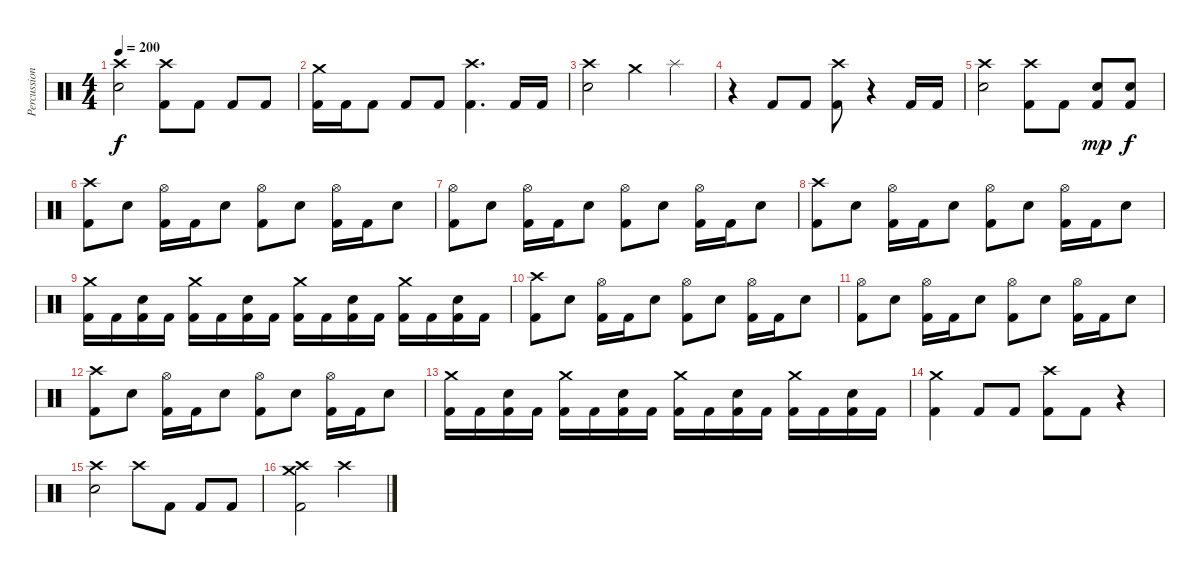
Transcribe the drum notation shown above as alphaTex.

\track ("Percussions" "Percussion") {instrument percussion}
\staff {score}
\articulation defaults
\ts (4 4)
\tempo 200
\clef neutral
\ks c
("Crash high (hit)" "Electric Snare (hit)").2{dy f} ("Crash high (hit)" "Kick (hit) 2").8 "Kick (hit) 2".8 "Kick (hit) 2".8 "Kick (hit) 2".8 |
("Crash medium (hit)" "Kick (hit) 2").16 "Kick (hit) 2".16 "Kick (hit) 2".8 "Kick (hit) 2".8 "Kick (hit) 2".8 ("Crash high (hit)" "Kick (hit) 2").4{d} "Kick (hit) 2".16 "Kick (hit) 2".16 |
("Crash high (hit)" "Electric Snare (hit)").2 "Crash medium (hit)".4 "Splash (hit)".4 |
r.4 "Kick (hit) 2".8 "Kick (hit) 2".8 ("Crash high (hit)" "Kick (hit) 2").8 r.4 "Kick (hit) 2".16 "Kick (hit) 2".16 |
("Crash high (hit)" "Electric Snare (hit)").2 ("Crash high (hit)" "Kick (hit) 2").8 "Kick (hit) 2".8 ("Electric Snare (hit)" "Kick (hit) 2").8{dy mp} ("Electric Snare (hit)" "Kick (hit) 2").8{dy f} |
("Crash high (hit)" "Kick (hit) 2").8 "Electric Snare (hit)".8 ("Hi-Hat (open)" "Kick (hit) 2").16 "Kick (hit) 2".16 "Electric Snare (hit)".8 ("Hi-Hat (open)" "Kick (hit) 2").8 "Electric Snare (hit)".8 ("Hi-Hat (open)" "Kick (hit) 2").16 "Kick (hit) 2".16 "Electric Snare (hit)".8 |
("Hi-Hat (open)" "Kick (hit) 2").8 "Electric Snare (hit)".8 ("Hi-Hat (open)" "Kick (hit) 2").16 "Kick (hit) 2".16 "Electric Snare (hit)".8 ("Hi-Hat (open)" "Kick (hit) 2").8 "Electric Snare (hit)".8 ("Hi-Hat (open)" "Kick (hit) 2").16 "Kick (hit) 2".16 "Electric Snare (hit)".8 |
("Crash high (hit)" "Kick (hit) 2").8 "Electric Snare (hit)".8 ("Hi-Hat (open)" "Kick (hit) 2").16 "Kick (hit) 2".16 "Electric Snare (hit)".8 ("Hi-Hat (open)" "Kick (hit) 2").8 "Electric Snare (hit)".8 ("Hi-Hat (open)" "Kick (hit) 2").16 "Kick (hit) 2".16 "Electric Snare (hit)".8 |
("Crash medium (hit)" "Kick (hit) 2").16 "Kick (hit) 2".16 ("Electric Snare (hit)" "Kick (hit) 2").16 "Kick (hit) 2".16 ("Crash medium (hit)" "Kick (hit) 2").16 "Kick (hit) 2".16 ("Electric Snare (hit)" "Kick (hit) 2").16 "Kick (hit) 2".16 ("Crash medium (hit)" "Kick (hit) 2").16 "Kick (hit) 2".16 ("Electric Snare (hit)" "Kick (hit) 2").16 "Kick (hit) 2".16 ("Crash medium (hit)" "Kick (hit) 2").16 "Kick (hit) 2".16 ("Electric Snare (hit)" "Kick (hit) 2").16 "Kick (hit) 2".16 |
("Crash high (hit)" "Kick (hit) 2").8 "Electric Snare (hit)".8 ("Hi-Hat (open)" "Kick (hit) 2").16 "Kick (hit) 2".16 "Electric Snare (hit)".8 ("Hi-Hat (open)" "Kick (hit) 2").8 "Electric Snare (hit)".8 ("Hi-Hat (open)" "Kick (hit) 2").16 "Kick (hit) 2".16 "Electric Snare (hit)".8 |
("Hi-Hat (open)" "Kick (hit) 2").8 "Electric Snare (hit)".8 ("Hi-Hat (open)" "Kick (hit) 2").16 "Kick (hit) 2".16 "Electric Snare (hit)".8 ("Hi-Hat (open)" "Kick (hit) 2").8 "Electric Snare (hit)".8 ("Hi-Hat (open)" "Kick (hit) 2").16 "Kick (hit) 2".16 "Electric Snare (hit)".8 |
("Crash high (hit)" "Kick (hit) 2").8 "Electric Snare (hit)".8 ("Hi-Hat (open)" "Kick (hit) 2").16 "Kick (hit) 2".16 "Electric Snare (hit)".8 ("Hi-Hat (open)" "Kick (hit) 2").8 "Electric Snare (hit)".8 ("Hi-Hat (open)" "Kick (hit) 2").16 "Kick (hit) 2".16 "Electric Snare (hit)".8 |
("Crash medium (hit)" "Kick (hit) 2").16 "Kick (hit) 2".16 ("Electric Snare (hit)" "Kick (hit) 2").16 "Kick (hit) 2".16 ("Crash medium (hit)" "Kick (hit) 2").16 "Kick (hit) 2".16 ("Electric Snare (hit)" "Kick (hit) 2").16 "Kick (hit) 2".16 ("Crash medium (hit)" "Kick (hit) 2").16 "Kick (hit) 2".16 ("Electric Snare (hit)" "Kick (hit) 2").16 "Kick (hit) 2".16 ("Crash medium (hit)" "Kick (hit) 2").16 "Kick (hit) 2".16 ("Electric Snare (hit)" "Kick (hit) 2").16 "Kick (hit) 2".16 |
("Crash medium (hit)" "Kick (hit) 2").4 "Kick (hit) 2".8 "Kick (hit) 2".8 ("Crash high (hit)" "Kick (hit) 2").8 "Kick (hit) 2".8 r.4 |
("Crash high (hit)" "Electric Snare (hit)").2 "Crash high (hit)".8 "Kick (hit) 2".8 "Kick (hit) 2".8 "Kick (hit) 2".8 |
("Crash high (hit)" "Crash medium (hit)" "Kick (hit) 2").2 "Crash high (hit)".2
